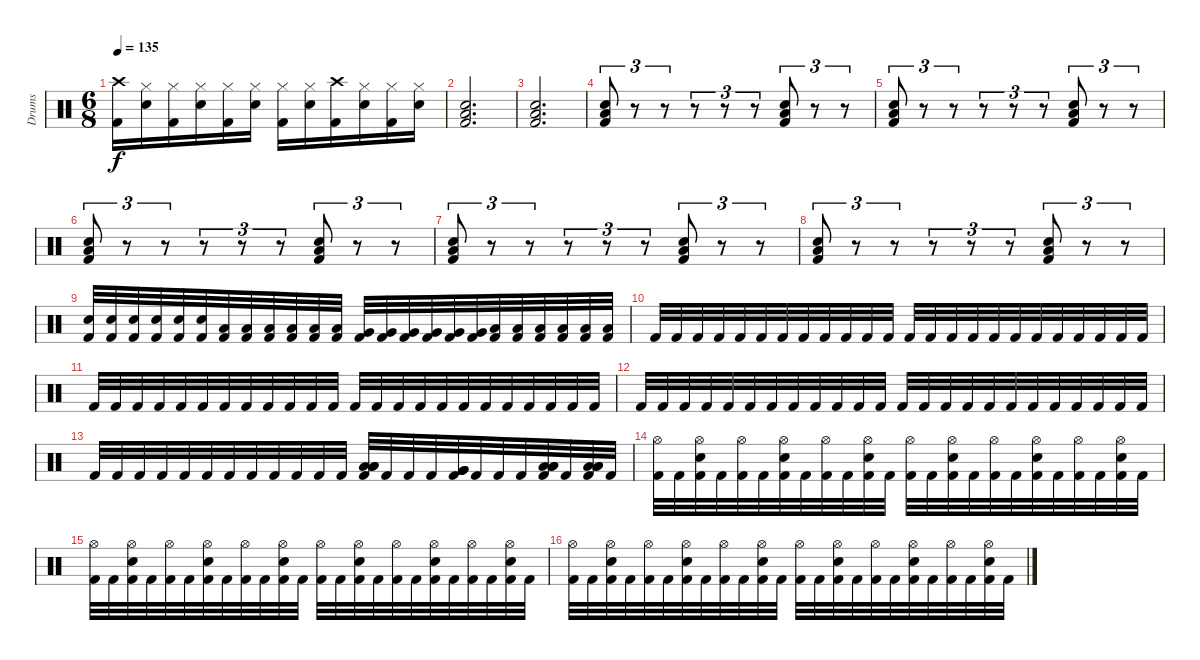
\track ("Drums" "Drums") {instrument percussion}
\staff {score}
\articulation defaults
\ts (6 8)
\tempo 135
\clef neutral
\ks c
("Crash high (hit)" "Kick (hit) 2").16{dy f} ("Hi-Hat (closed)" "Electric Snare (hit)").16 ("Hi-Hat (closed)" "Kick (hit) 2").16 ("Hi-Hat (closed)" "Electric Snare (hit)").16 ("Hi-Hat (closed)" "Kick (hit) 2").16 ("Hi-Hat (closed)" "Electric Snare (hit)").16 ("Hi-Hat (closed)" "Kick (hit) 2").16 ("Hi-Hat (closed)" "Electric Snare (hit)").16 ("Crash high (hit)" "Kick (hit) 2").16 ("Hi-Hat (closed)" "Electric Snare (hit)").16 ("Hi-Hat (closed)" "Kick (hit) 2").16 ("Hi-Hat (closed)" "Electric Snare (hit)").16 |
("Low Floor Tom (hit)" "Electric Snare (hit)" "Kick (hit) 2").2{d} |
("Low Floor Tom (hit)" "Electric Snare (hit)" "Kick (hit) 2").2{d} |
("Electric Snare (hit)" "Low Floor Tom (hit)" "Kick (hit) 2").8{tu (3 2)} r.8{tu (3 2)} r.8{tu (3 2)} r.8{tu (3 2)} r.8{tu (3 2)} r.8{tu (3 2)} ("Electric Snare (hit)" "Low Floor Tom (hit)" "Kick (hit) 2").8{tu (3 2)} r.8{tu (3 2)} r.8{tu (3 2)} |
("Electric Snare (hit)" "Low Floor Tom (hit)" "Kick (hit) 2").8{tu (3 2)} r.8{tu (3 2)} r.8{tu (3 2)} r.8{tu (3 2)} r.8{tu (3 2)} r.8{tu (3 2)} ("Electric Snare (hit)" "Low Floor Tom (hit)" "Kick (hit) 2").8{tu (3 2)} r.8{tu (3 2)} r.8{tu (3 2)} |
("Electric Snare (hit)" "Low Floor Tom (hit)" "Kick (hit) 2").8{tu (3 2)} r.8{tu (3 2)} r.8{tu (3 2)} r.8{tu (3 2)} r.8{tu (3 2)} r.8{tu (3 2)} ("Electric Snare (hit)" "Low Floor Tom (hit)" "Kick (hit) 2").8{tu (3 2)} r.8{tu (3 2)} r.8{tu (3 2)} |
("Electric Snare (hit)" "Low Floor Tom (hit)" "Kick (hit) 2").8{tu (3 2)} r.8{tu (3 2)} r.8{tu (3 2)} r.8{tu (3 2)} r.8{tu (3 2)} r.8{tu (3 2)} ("Electric Snare (hit)" "Low Floor Tom (hit)" "Kick (hit) 2").8{tu (3 2)} r.8{tu (3 2)} r.8{tu (3 2)} |
("Electric Snare (hit)" "Low Floor Tom (hit)" "Kick (hit) 2").8{tu (3 2)} r.8{tu (3 2)} r.8{tu (3 2)} r.8{tu (3 2)} r.8{tu (3 2)} r.8{tu (3 2)} ("Electric Snare (hit)" "Low Floor Tom (hit)" "Kick (hit) 2").8{tu (3 2)} r.8{tu (3 2)} r.8{tu (3 2)} |
("Electric Snare (hit)" "Kick (hit) 2").32 ("Electric Snare (hit)" "Kick (hit) 2").32 ("Electric Snare (hit)" "Kick (hit) 2").32 ("Electric Snare (hit)" "Kick (hit) 2").32 ("Electric Snare (hit)" "Kick (hit) 2").32 ("Electric Snare (hit)" "Kick (hit) 2").32 ("Low Tom (hit)" "Kick (hit) 2").32 ("Low Tom (hit)" "Kick (hit) 2").32 ("Low Tom (hit)" "Kick (hit) 2").32 ("Low Tom (hit)" "Kick (hit) 2").32 ("Low Tom (hit)" "Kick (hit) 2").32 ("Low Tom (hit)" "Kick (hit) 2").32 ("Very Low Tom (hit)" "Kick (hit) 2").32 ("Very Low Tom (hit)" "Kick (hit) 2").32 ("Very Low Tom (hit)" "Kick (hit) 2").32 ("Very Low Tom (hit)" "Kick (hit) 2").32 ("Very Low Tom (hit)" "Kick (hit) 2").32 ("Very Low Tom (hit)" "Kick (hit) 2").32 ("Low Floor Tom (hit)" "Kick (hit) 2").32 ("Low Floor Tom (hit)" "Kick (hit) 2").32 ("Low Floor Tom (hit)" "Kick (hit) 2").32 ("Low Floor Tom (hit)" "Kick (hit) 2").32 ("Low Floor Tom (hit)" "Kick (hit) 2").32 ("Low Floor Tom (hit)" "Kick (hit) 2").32 |
"Kick (hit) 2".32 "Kick (hit) 2".32 "Kick (hit) 2".32 "Kick (hit) 2".32 "Kick (hit) 2".32 "Kick (hit) 2".32 "Kick (hit) 2".32 "Kick (hit) 2".32 "Kick (hit) 2".32 "Kick (hit) 2".32 "Kick (hit) 2".32 "Kick (hit) 2".32 "Kick (hit) 2".32 "Kick (hit) 2".32 "Kick (hit) 2".32 "Kick (hit) 2".32 "Kick (hit) 2".32 "Kick (hit) 2".32 "Kick (hit) 2".32 "Kick (hit) 2".32 "Kick (hit) 2".32 "Kick (hit) 2".32 "Kick (hit) 2".32 "Kick (hit) 2".32 |
"Kick (hit) 2".32 "Kick (hit) 2".32 "Kick (hit) 2".32 "Kick (hit) 2".32 "Kick (hit) 2".32 "Kick (hit) 2".32 "Kick (hit) 2".32 "Kick (hit) 2".32 "Kick (hit) 2".32 "Kick (hit) 2".32 "Kick (hit) 2".32 "Kick (hit) 2".32 "Kick (hit) 2".32 "Kick (hit) 2".32 "Kick (hit) 2".32 "Kick (hit) 2".32 "Kick (hit) 2".32 "Kick (hit) 2".32 "Kick (hit) 2".32 "Kick (hit) 2".32 "Kick (hit) 2".32 "Kick (hit) 2".32 "Kick (hit) 2".32 "Kick (hit) 2".32 |
"Kick (hit) 2".32 "Kick (hit) 2".32 "Kick (hit) 2".32 "Kick (hit) 2".32 "Kick (hit) 2".32 "Kick (hit) 2".32 "Kick (hit) 2".32 "Kick (hit) 2".32 "Kick (hit) 2".32 "Kick (hit) 2".32 "Kick (hit) 2".32 "Kick (hit) 2".32 "Kick (hit) 2".32 "Kick (hit) 2".32 "Kick (hit) 2".32 "Kick (hit) 2".32 "Kick (hit) 2".32 "Kick (hit) 2".32 "Kick (hit) 2".32 "Kick (hit) 2".32 "Kick (hit) 2".32 "Kick (hit) 2".32 "Kick (hit) 2".32 "Kick (hit) 2".32 |
"Kick (hit) 2".32 "Kick (hit) 2".32 "Kick (hit) 2".32 "Kick (hit) 2".32 "Kick (hit) 2".32 "Kick (hit) 2".32 "Kick (hit) 2".32 "Kick (hit) 2".32 "Kick (hit) 2".32 "Kick (hit) 2".32 "Kick (hit) 2".32 "Kick (hit) 2".32 ("Low Tom (hit)" "Low Tom (hit)" "Low Tom (hit)" "Kick (hit) 2").32 "Kick (hit) 2".32 "Kick (hit) 2".32 "Kick (hit) 2".32 ("Very Low Tom (hit)" "Very Low Tom (hit)" "Very Low Tom (hit)" "Kick (hit) 2").32 "Kick (hit) 2".32 "Kick (hit) 2".32 "Kick (hit) 2".32 ("Low Floor Tom (hit)" "Low Floor Tom (hit)" "Low Floor Tom (hit)" "Kick (hit) 2").32 "Kick (hit) 2".32 ("Low Floor Tom (hit)" "Low Floor Tom (hit)" "Low Floor Tom (hit)" "Kick (hit) 2").32 "Kick (hit) 2".32 |
("Hi-Hat (open)" "Kick (hit) 2").32 "Kick (hit) 2".32 ("Hi-Hat (open)" "Electric Snare (hit)" "Kick (hit) 2").32 "Kick (hit) 2".32 ("Hi-Hat (open)" "Kick (hit) 2").32 "Kick (hit) 2".32 ("Hi-Hat (open)" "Electric Snare (hit)" "Kick (hit) 2").32 "Kick (hit) 2".32 ("Hi-Hat (open)" "Kick (hit) 2").32 "Kick (hit) 2".32 ("Hi-Hat (open)" "Electric Snare (hit)" "Kick (hit) 2").32 "Kick (hit) 2".32 ("Hi-Hat (open)" "Kick (hit) 2").32 "Kick (hit) 2".32 ("Hi-Hat (open)" "Electric Snare (hit)" "Kick (hit) 2").32 "Kick (hit) 2".32 ("Hi-Hat (open)" "Kick (hit) 2").32 "Kick (hit) 2".32 ("Hi-Hat (open)" "Electric Snare (hit)" "Kick (hit) 2").32 "Kick (hit) 2".32 ("Hi-Hat (open)" "Kick (hit) 2").32 "Kick (hit) 2".32 ("Hi-Hat (open)" "Electric Snare (hit)" "Kick (hit) 2").32 "Kick (hit) 2".32 |
("Hi-Hat (open)" "Kick (hit) 2").32 "Kick (hit) 2".32 ("Hi-Hat (open)" "Electric Snare (hit)" "Kick (hit) 2").32 "Kick (hit) 2".32 ("Hi-Hat (open)" "Kick (hit) 2").32 "Kick (hit) 2".32 ("Hi-Hat (open)" "Electric Snare (hit)" "Kick (hit) 2").32 "Kick (hit) 2".32 ("Hi-Hat (open)" "Kick (hit) 2").32 "Kick (hit) 2".32 ("Hi-Hat (open)" "Electric Snare (hit)" "Kick (hit) 2").32 "Kick (hit) 2".32 ("Hi-Hat (open)" "Kick (hit) 2").32 "Kick (hit) 2".32 ("Hi-Hat (open)" "Electric Snare (hit)" "Kick (hit) 2").32 "Kick (hit) 2".32 ("Hi-Hat (open)" "Kick (hit) 2").32 "Kick (hit) 2".32 ("Hi-Hat (open)" "Electric Snare (hit)" "Kick (hit) 2").32 "Kick (hit) 2".32 ("Hi-Hat (open)" "Kick (hit) 2").32 "Kick (hit) 2".32 ("Hi-Hat (open)" "Electric Snare (hit)" "Kick (hit) 2").32 "Kick (hit) 2".32 |
("Hi-Hat (open)" "Kick (hit) 2").32 "Kick (hit) 2".32 ("Hi-Hat (open)" "Electric Snare (hit)" "Kick (hit) 2").32 "Kick (hit) 2".32 ("Hi-Hat (open)" "Kick (hit) 2").32 "Kick (hit) 2".32 ("Hi-Hat (open)" "Electric Snare (hit)" "Kick (hit) 2").32 "Kick (hit) 2".32 ("Hi-Hat (open)" "Kick (hit) 2").32 "Kick (hit) 2".32 ("Hi-Hat (open)" "Electric Snare (hit)" "Kick (hit) 2").32 "Kick (hit) 2".32 ("Hi-Hat (open)" "Kick (hit) 2").32 "Kick (hit) 2".32 ("Hi-Hat (open)" "Electric Snare (hit)" "Kick (hit) 2").32 "Kick (hit) 2".32 ("Hi-Hat (open)" "Kick (hit) 2").32 "Kick (hit) 2".32 ("Hi-Hat (open)" "Electric Snare (hit)" "Kick (hit) 2").32 "Kick (hit) 2".32 ("Hi-Hat (open)" "Kick (hit) 2").32 "Kick (hit) 2".32 ("Hi-Hat (open)" "Electric Snare (hit)" "Kick (hit) 2").32 "Kick (hit) 2".32
